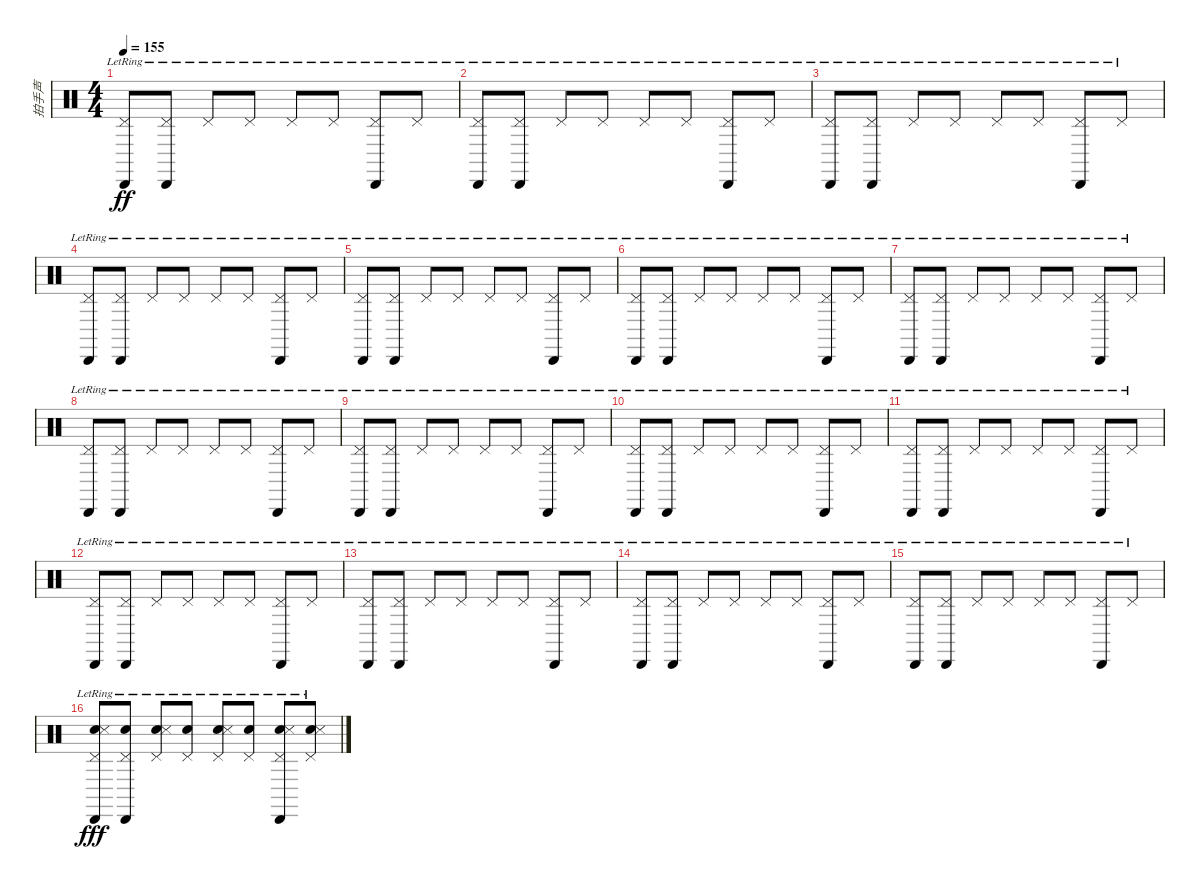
\track ("拍手声" "拍手声") {instrument percussion}
\staff {score}
\articulation defaults
\ts (4 4)
\tempo 155
\clef neutral
\ks c
("Pedal Hi-Hat (hit)"{lr} "Cabasa (hit)"{lr}).8{dy ff} ("Pedal Hi-Hat (hit)"{lr} "Cabasa (hit)"{lr}).8 "Pedal Hi-Hat (hit)"{lr}.8 "Pedal Hi-Hat (hit)"{lr}.8 "Pedal Hi-Hat (hit)"{lr}.8 "Pedal Hi-Hat (hit)"{lr}.8 ("Pedal Hi-Hat (hit)"{lr} "Cabasa (hit)"{lr}).8 "Pedal Hi-Hat (hit)"{lr}.8 |
("Pedal Hi-Hat (hit)"{lr} "Cabasa (hit)"{lr}).8 ("Pedal Hi-Hat (hit)"{lr} "Cabasa (hit)"{lr}).8 "Pedal Hi-Hat (hit)"{lr}.8 "Pedal Hi-Hat (hit)"{lr}.8 "Pedal Hi-Hat (hit)"{lr}.8 "Pedal Hi-Hat (hit)"{lr}.8 ("Pedal Hi-Hat (hit)"{lr} "Cabasa (hit)"{lr}).8 "Pedal Hi-Hat (hit)"{lr}.8 |
("Pedal Hi-Hat (hit)"{lr} "Cabasa (hit)"{lr}).8 ("Pedal Hi-Hat (hit)"{lr} "Cabasa (hit)"{lr}).8 "Pedal Hi-Hat (hit)"{lr}.8 "Pedal Hi-Hat (hit)"{lr}.8 "Pedal Hi-Hat (hit)"{lr}.8 "Pedal Hi-Hat (hit)"{lr}.8 ("Pedal Hi-Hat (hit)"{lr} "Cabasa (hit)"{lr}).8 "Pedal Hi-Hat (hit)"{lr}.8 |
("Pedal Hi-Hat (hit)"{lr} "Cabasa (hit)"{lr}).8 ("Pedal Hi-Hat (hit)"{lr} "Cabasa (hit)"{lr}).8 "Pedal Hi-Hat (hit)"{lr}.8 "Pedal Hi-Hat (hit)"{lr}.8 "Pedal Hi-Hat (hit)"{lr}.8 "Pedal Hi-Hat (hit)"{lr}.8 ("Pedal Hi-Hat (hit)"{lr} "Cabasa (hit)"{lr}).8 "Pedal Hi-Hat (hit)"{lr}.8 |
("Pedal Hi-Hat (hit)"{lr} "Cabasa (hit)"{lr}).8 ("Pedal Hi-Hat (hit)"{lr} "Cabasa (hit)"{lr}).8 "Pedal Hi-Hat (hit)"{lr}.8 "Pedal Hi-Hat (hit)"{lr}.8 "Pedal Hi-Hat (hit)"{lr}.8 "Pedal Hi-Hat (hit)"{lr}.8 ("Pedal Hi-Hat (hit)"{lr} "Cabasa (hit)"{lr}).8 "Pedal Hi-Hat (hit)"{lr}.8 |
("Pedal Hi-Hat (hit)"{lr} "Cabasa (hit)"{lr}).8 ("Pedal Hi-Hat (hit)"{lr} "Cabasa (hit)"{lr}).8 "Pedal Hi-Hat (hit)"{lr}.8 "Pedal Hi-Hat (hit)"{lr}.8 "Pedal Hi-Hat (hit)"{lr}.8 "Pedal Hi-Hat (hit)"{lr}.8 ("Pedal Hi-Hat (hit)"{lr} "Cabasa (hit)"{lr}).8 "Pedal Hi-Hat (hit)"{lr}.8 |
("Pedal Hi-Hat (hit)"{lr} "Cabasa (hit)"{lr}).8 ("Pedal Hi-Hat (hit)"{lr} "Cabasa (hit)"{lr}).8 "Pedal Hi-Hat (hit)"{lr}.8 "Pedal Hi-Hat (hit)"{lr}.8 "Pedal Hi-Hat (hit)"{lr}.8 "Pedal Hi-Hat (hit)"{lr}.8 ("Pedal Hi-Hat (hit)"{lr} "Cabasa (hit)"{lr}).8 "Pedal Hi-Hat (hit)"{lr}.8 |
("Pedal Hi-Hat (hit)"{lr} "Cabasa (hit)"{lr}).8 ("Pedal Hi-Hat (hit)"{lr} "Cabasa (hit)"{lr}).8 "Pedal Hi-Hat (hit)"{lr}.8 "Pedal Hi-Hat (hit)"{lr}.8 "Pedal Hi-Hat (hit)"{lr}.8 "Pedal Hi-Hat (hit)"{lr}.8 ("Pedal Hi-Hat (hit)"{lr} "Cabasa (hit)"{lr}).8 "Pedal Hi-Hat (hit)"{lr}.8 |
("Pedal Hi-Hat (hit)"{lr} "Cabasa (hit)"{lr}).8 ("Pedal Hi-Hat (hit)"{lr} "Cabasa (hit)"{lr}).8 "Pedal Hi-Hat (hit)"{lr}.8 "Pedal Hi-Hat (hit)"{lr}.8 "Pedal Hi-Hat (hit)"{lr}.8 "Pedal Hi-Hat (hit)"{lr}.8 ("Pedal Hi-Hat (hit)"{lr} "Cabasa (hit)"{lr}).8 "Pedal Hi-Hat (hit)"{lr}.8 |
("Pedal Hi-Hat (hit)"{lr} "Cabasa (hit)"{lr}).8 ("Pedal Hi-Hat (hit)"{lr} "Cabasa (hit)"{lr}).8 "Pedal Hi-Hat (hit)"{lr}.8 "Pedal Hi-Hat (hit)"{lr}.8 "Pedal Hi-Hat (hit)"{lr}.8 "Pedal Hi-Hat (hit)"{lr}.8 ("Pedal Hi-Hat (hit)"{lr} "Cabasa (hit)"{lr}).8 "Pedal Hi-Hat (hit)"{lr}.8 |
("Pedal Hi-Hat (hit)"{lr} "Cabasa (hit)"{lr}).8 ("Pedal Hi-Hat (hit)"{lr} "Cabasa (hit)"{lr}).8 "Pedal Hi-Hat (hit)"{lr}.8 "Pedal Hi-Hat (hit)"{lr}.8 "Pedal Hi-Hat (hit)"{lr}.8 "Pedal Hi-Hat (hit)"{lr}.8 ("Pedal Hi-Hat (hit)"{lr} "Cabasa (hit)"{lr}).8 "Pedal Hi-Hat (hit)"{lr}.8 |
("Pedal Hi-Hat (hit)"{lr} "Cabasa (hit)"{lr}).8 ("Pedal Hi-Hat (hit)"{lr} "Cabasa (hit)"{lr}).8 "Pedal Hi-Hat (hit)"{lr}.8 "Pedal Hi-Hat (hit)"{lr}.8 "Pedal Hi-Hat (hit)"{lr}.8 "Pedal Hi-Hat (hit)"{lr}.8 ("Pedal Hi-Hat (hit)"{lr} "Cabasa (hit)"{lr}).8 "Pedal Hi-Hat (hit)"{lr}.8 |
("Pedal Hi-Hat (hit)"{lr} "Cabasa (hit)"{lr}).8 ("Pedal Hi-Hat (hit)"{lr} "Cabasa (hit)"{lr}).8 "Pedal Hi-Hat (hit)"{lr}.8 "Pedal Hi-Hat (hit)"{lr}.8 "Pedal Hi-Hat (hit)"{lr}.8 "Pedal Hi-Hat (hit)"{lr}.8 ("Pedal Hi-Hat (hit)"{lr} "Cabasa (hit)"{lr}).8 "Pedal Hi-Hat (hit)"{lr}.8 |
("Pedal Hi-Hat (hit)"{lr} "Cabasa (hit)"{lr}).8 ("Pedal Hi-Hat (hit)"{lr} "Cabasa (hit)"{lr}).8 "Pedal Hi-Hat (hit)"{lr}.8 "Pedal Hi-Hat (hit)"{lr}.8 "Pedal Hi-Hat (hit)"{lr}.8 "Pedal Hi-Hat (hit)"{lr}.8 ("Pedal Hi-Hat (hit)"{lr} "Cabasa (hit)"{lr}).8 "Pedal Hi-Hat (hit)"{lr}.8 |
("Pedal Hi-Hat (hit)"{lr} "Cabasa (hit)"{lr}).8 ("Pedal Hi-Hat (hit)"{lr} "Cabasa (hit)"{lr}).8 "Pedal Hi-Hat (hit)"{lr}.8 "Pedal Hi-Hat (hit)"{lr}.8 "Pedal Hi-Hat (hit)"{lr}.8 "Pedal Hi-Hat (hit)"{lr}.8 ("Pedal Hi-Hat (hit)"{lr} "Cabasa (hit)"{lr}).8 "Pedal Hi-Hat (hit)"{lr}.8 |
("Pedal Hi-Hat (hit)"{lr} "Cabasa (hit)"{lr} "Hand Clap (hit)"{lr} "Snare (side stick) 3"{lr}).8{dy fff} ("Pedal Hi-Hat (hit)"{lr} "Cabasa (hit)"{lr} "Hand Clap (hit)"{lr}).8 ("Pedal Hi-Hat (hit)"{lr} "Hand Clap (hit)"{lr} "Snare (side stick) 3"{lr}).8 ("Pedal Hi-Hat (hit)"{lr} "Hand Clap (hit)"{lr}).8 ("Pedal Hi-Hat (hit)"{lr} "Hand Clap (hit)"{lr} "Snare (side stick) 3"{lr}).8 ("Pedal Hi-Hat (hit)"{lr} "Hand Clap (hit)"{lr}).8 ("Pedal Hi-Hat (hit)"{lr} "Cabasa (hit)"{lr} "Hand Clap (hit)"{lr} "Snare (side stick) 3"{lr}).8 ("Pedal Hi-Hat (hit)"{lr} "Hand Clap (hit)"{lr} "Snare (side stick) 3"{lr}).8
